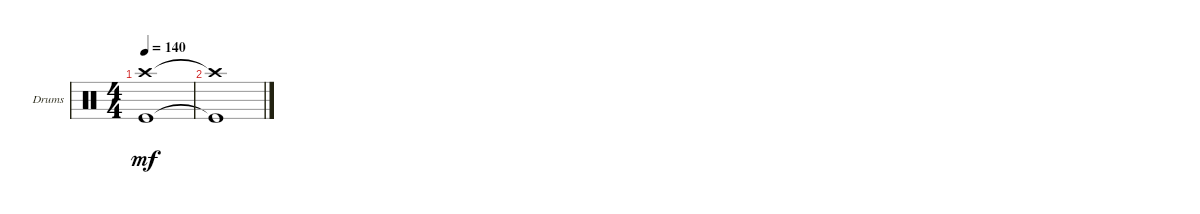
\defaultSystemsLayout 4
\bracketExtendMode groupsimilarinstruments
\firstSystemTrackNameOrientation horizontal
\otherSystemsTrackNameOrientation horizontal
\track ("Drumkit" "Drums") {instrument percussion}
\staff {score}
\articulation defaults
\ts (4 4)
\tempo 140
\clef neutral
\ks c
("Kick (hit)" "Crash high (hit)").1{dy mf} |
("Kick (hit)"{t} "Crash high (hit)"{t}).1
